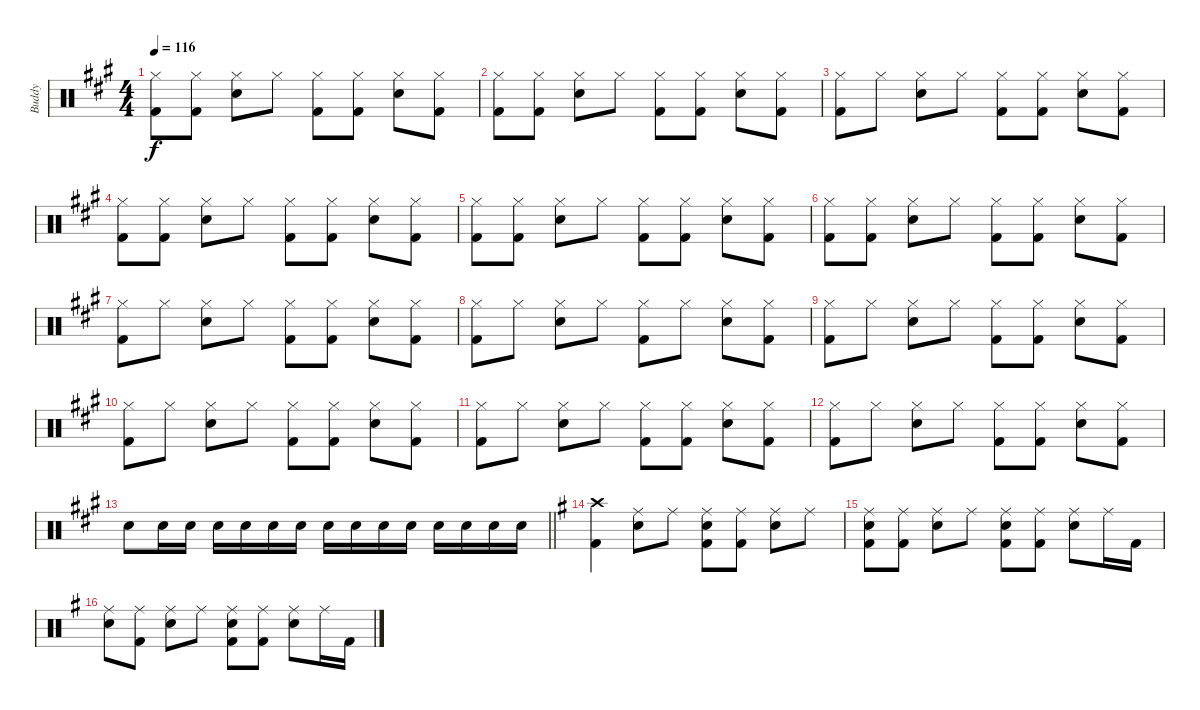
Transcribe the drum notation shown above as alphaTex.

\track ("Buddy" "Buddy") {instrument percussion}
\staff {score}
\articulation defaults
\ts (4 4)
\tempo 116
\clef neutral
\ks a
("Hi-Hat (closed)" "Kick (hit) 2").8{dy f} ("Hi-Hat (closed)" "Kick (hit) 2").8 ("Hi-Hat (closed)" "Snare (hit) 2").8 "Hi-Hat (closed)".8 ("Hi-Hat (closed)" "Kick (hit) 2").8 ("Hi-Hat (closed)" "Kick (hit) 2").8 ("Hi-Hat (closed)" "Snare (hit) 2").8 ("Hi-Hat (closed)" "Kick (hit) 2").8 |
("Hi-Hat (closed)" "Kick (hit) 2").8 ("Hi-Hat (closed)" "Kick (hit) 2").8 ("Hi-Hat (closed)" "Snare (hit) 2").8 "Hi-Hat (closed)".8 ("Hi-Hat (closed)" "Kick (hit) 2").8 ("Hi-Hat (closed)" "Kick (hit) 2").8 ("Hi-Hat (closed)" "Snare (hit) 2").8 ("Hi-Hat (closed)" "Kick (hit) 2").8 |
("Hi-Hat (closed)" "Kick (hit) 2").8 "Hi-Hat (closed)".8 ("Hi-Hat (closed)" "Snare (hit) 2").8 "Hi-Hat (closed)".8 ("Hi-Hat (closed)" "Kick (hit) 2").8 ("Hi-Hat (closed)" "Kick (hit) 2").8 ("Hi-Hat (closed)" "Snare (hit) 2").8 ("Hi-Hat (closed)" "Kick (hit) 2").8 |
("Hi-Hat (closed)" "Kick (hit) 2").8 ("Hi-Hat (closed)" "Kick (hit) 2").8 ("Hi-Hat (closed)" "Snare (hit) 2").8 "Hi-Hat (closed)".8 ("Hi-Hat (closed)" "Kick (hit) 2").8 ("Hi-Hat (closed)" "Kick (hit) 2").8 ("Hi-Hat (closed)" "Snare (hit) 2").8 ("Hi-Hat (closed)" "Kick (hit) 2").8 |
("Hi-Hat (closed)" "Kick (hit) 2").8 ("Hi-Hat (closed)" "Kick (hit) 2").8 ("Hi-Hat (closed)" "Snare (hit) 2").8 "Hi-Hat (closed)".8 ("Hi-Hat (closed)" "Kick (hit) 2").8 ("Hi-Hat (closed)" "Kick (hit) 2").8 ("Hi-Hat (closed)" "Snare (hit) 2").8 ("Hi-Hat (closed)" "Kick (hit) 2").8 |
("Hi-Hat (closed)" "Kick (hit) 2").8 ("Hi-Hat (closed)" "Kick (hit) 2").8 ("Hi-Hat (closed)" "Snare (hit) 2").8 "Hi-Hat (closed)".8 ("Hi-Hat (closed)" "Kick (hit) 2").8 ("Hi-Hat (closed)" "Kick (hit) 2").8 ("Hi-Hat (closed)" "Snare (hit) 2").8 ("Hi-Hat (closed)" "Kick (hit) 2").8 |
("Hi-Hat (closed)" "Kick (hit) 2").8 "Hi-Hat (closed)".8 ("Hi-Hat (closed)" "Snare (hit) 2").8 "Hi-Hat (closed)".8 ("Hi-Hat (closed)" "Kick (hit) 2").8 ("Hi-Hat (closed)" "Kick (hit) 2").8 ("Hi-Hat (closed)" "Snare (hit) 2").8 ("Hi-Hat (closed)" "Kick (hit) 2").8 |
("Hi-Hat (closed)" "Kick (hit) 2").8 "Hi-Hat (closed)".8 ("Hi-Hat (closed)" "Snare (hit) 2").8 "Hi-Hat (closed)".8 ("Hi-Hat (closed)" "Kick (hit) 2").8 "Hi-Hat (closed)".8 ("Hi-Hat (closed)" "Snare (hit) 2").8 ("Hi-Hat (closed)" "Kick (hit) 2").8 |
("Hi-Hat (closed)" "Kick (hit) 2").8 "Hi-Hat (closed)".8 ("Hi-Hat (closed)" "Snare (hit) 2").8 "Hi-Hat (closed)".8 ("Hi-Hat (closed)" "Kick (hit) 2").8 ("Hi-Hat (closed)" "Kick (hit) 2").8 ("Hi-Hat (closed)" "Snare (hit) 2").8 ("Hi-Hat (closed)" "Kick (hit) 2").8 |
("Hi-Hat (closed)" "Kick (hit) 2").8 "Hi-Hat (closed)".8 ("Hi-Hat (closed)" "Snare (hit) 2").8 "Hi-Hat (closed)".8 ("Hi-Hat (closed)" "Kick (hit) 2").8 ("Hi-Hat (closed)" "Kick (hit) 2").8 ("Hi-Hat (closed)" "Snare (hit) 2").8 ("Hi-Hat (closed)" "Kick (hit) 2").8 |
("Hi-Hat (closed)" "Kick (hit) 2").8 "Hi-Hat (closed)".8 ("Hi-Hat (closed)" "Snare (hit) 2").8 "Hi-Hat (closed)".8 ("Hi-Hat (closed)" "Kick (hit) 2").8 ("Hi-Hat (closed)" "Kick (hit) 2").8 ("Hi-Hat (closed)" "Snare (hit) 2").8 ("Hi-Hat (closed)" "Kick (hit) 2").8 |
("Hi-Hat (closed)" "Kick (hit) 2").8 "Hi-Hat (closed)".8 ("Hi-Hat (closed)" "Snare (hit) 2").8 "Hi-Hat (closed)".8 ("Hi-Hat (closed)" "Kick (hit) 2").8 ("Hi-Hat (closed)" "Kick (hit) 2").8 ("Hi-Hat (closed)" "Snare (hit) 2").8 ("Hi-Hat (closed)" "Kick (hit) 2").8 |
\barLineRight lightlight "Snare (hit) 2".8 "Snare (hit) 2".16 "Snare (hit) 2".16 "Snare (hit) 2".16 "Snare (hit) 2".16 "Snare (hit) 2".16 "Snare (hit) 2".16 "Snare (hit) 2".16 "Snare (hit) 2".16 "Snare (hit) 2".16 "Snare (hit) 2".16 "Snare (hit) 2".16 "Snare (hit) 2".16 "Snare (hit) 2".16 "Snare (hit) 2".16
|
\ks eminor
("Crash high (hit)" "Kick (hit) 2").4 ("Ride (middle)" "Snare (hit) 2").8 "Ride (middle)".8 ("Ride (middle)" "Snare (hit) 2" "Kick (hit) 2").8 ("Ride (middle)" "Kick (hit) 2").8 ("Ride (middle)" "Snare (hit) 2").8 "Ride (middle)".8 |
\ks g
("Ride (middle)" "Snare (hit) 2" "Kick (hit) 2").8 ("Ride (middle)" "Kick (hit) 2").8 ("Ride (middle)" "Snare (hit) 2").8 "Ride (middle)".8 ("Ride (middle)" "Snare (hit) 2" "Kick (hit) 2").8 ("Ride (middle)" "Kick (hit) 2").8 ("Ride (middle)" "Snare (hit) 2").8 "Ride (middle)".16 "Kick (hit) 2".16 |
("Ride (middle)" "Snare (hit) 2").8 ("Ride (middle)" "Kick (hit) 2").8 ("Ride (middle)" "Snare (hit) 2").8 "Ride (middle)".8 ("Ride (middle)" "Snare (hit) 2" "Kick (hit) 2").8 ("Ride (middle)" "Kick (hit) 2").8 ("Ride (middle)" "Snare (hit) 2").8 "Ride (middle)".16 "Kick (hit) 2".16
